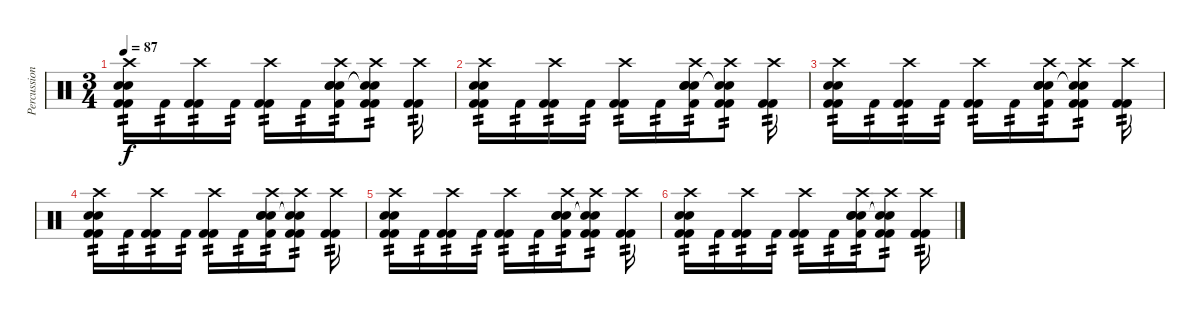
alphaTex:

\track ("Percussion" "Percussion") {instrument percussion}
\staff {score}
\articulation defaults
\ts (3 4)
\tempo 87
\clef neutral
\ks c
("Crash high (hit)" "Snare (hit) 2" "Snare (hit) 2" "Kick (hit) 2" "Kick (hit) 2").16{tp 2 dy f volume 0} "Kick (hit) 2".16{tp 2} ("Crash high (hit)" "Kick (hit) 2" "Kick (hit) 2").16{tp 2} "Kick (hit) 2".16{tp 2} ("Crash high (hit)" "Kick (hit) 2" "Kick (hit) 2").16{tp 2} "Kick (hit) 2".16{tp 2} ("Crash high (hit)" "Snare (hit) 2" "Snare (hit) 2" "Snare (hit) 2" "Kick (hit) 2").16{tp 2} ("Crash high (hit)" "Snare (hit) 2"{t} "Snare (hit) 2"{t} "Kick (hit) 2" "Kick (hit) 2").8{tp 2} ("Crash high (hit)" "Kick (hit) 2" "Kick (hit) 2").16{tp 2} |
("Crash high (hit)" "Snare (hit) 2" "Snare (hit) 2" "Kick (hit) 2" "Kick (hit) 2").16{tp 2 volume 0} "Kick (hit) 2".16{tp 2} ("Crash high (hit)" "Kick (hit) 2" "Kick (hit) 2").16{tp 2} "Kick (hit) 2".16{tp 2} ("Crash high (hit)" "Kick (hit) 2" "Kick (hit) 2").16{tp 2} "Kick (hit) 2".16{tp 2} ("Crash high (hit)" "Snare (hit) 2" "Snare (hit) 2" "Snare (hit) 2" "Kick (hit) 2").16{tp 2} ("Crash high (hit)" "Snare (hit) 2"{t} "Snare (hit) 2"{t} "Kick (hit) 2" "Kick (hit) 2").8{tp 2} ("Crash high (hit)" "Kick (hit) 2" "Kick (hit) 2").16{tp 2} |
("Crash high (hit)" "Snare (hit) 2" "Snare (hit) 2" "Kick (hit) 2" "Kick (hit) 2").16{tp 2 volume 0} "Kick (hit) 2".16{tp 2} ("Crash high (hit)" "Kick (hit) 2" "Kick (hit) 2").16{tp 2} "Kick (hit) 2".16{tp 2} ("Crash high (hit)" "Kick (hit) 2" "Kick (hit) 2").16{tp 2} "Kick (hit) 2".16{tp 2} ("Crash high (hit)" "Snare (hit) 2" "Snare (hit) 2" "Snare (hit) 2" "Kick (hit) 2").16{tp 2} ("Crash high (hit)" "Snare (hit) 2"{t} "Snare (hit) 2"{t} "Kick (hit) 2" "Kick (hit) 2").8{tp 2} ("Crash high (hit)" "Kick (hit) 2" "Kick (hit) 2").16{tp 2} |
("Crash high (hit)" "Snare (hit) 2" "Snare (hit) 2" "Kick (hit) 2" "Kick (hit) 2").16{tp 2 volume 0} "Kick (hit) 2".16{tp 2} ("Crash high (hit)" "Kick (hit) 2" "Kick (hit) 2").16{tp 2} "Kick (hit) 2".16{tp 2} ("Crash high (hit)" "Kick (hit) 2" "Kick (hit) 2").16{tp 2} "Kick (hit) 2".16{tp 2} ("Crash high (hit)" "Snare (hit) 2" "Snare (hit) 2" "Snare (hit) 2" "Kick (hit) 2").16{tp 2} ("Crash high (hit)" "Snare (hit) 2"{t} "Snare (hit) 2"{t} "Kick (hit) 2" "Kick (hit) 2").8{tp 2} ("Crash high (hit)" "Kick (hit) 2" "Kick (hit) 2").16{tp 2} |
("Crash high (hit)" "Snare (hit) 2" "Snare (hit) 2" "Kick (hit) 2" "Kick (hit) 2").16{tp 2 volume 0} "Kick (hit) 2".16{tp 2} ("Crash high (hit)" "Kick (hit) 2" "Kick (hit) 2").16{tp 2} "Kick (hit) 2".16{tp 2} ("Crash high (hit)" "Kick (hit) 2" "Kick (hit) 2").16{tp 2} "Kick (hit) 2".16{tp 2} ("Crash high (hit)" "Snare (hit) 2" "Snare (hit) 2" "Snare (hit) 2" "Kick (hit) 2").16{tp 2} ("Crash high (hit)" "Snare (hit) 2"{t} "Snare (hit) 2"{t} "Kick (hit) 2" "Kick (hit) 2").8{tp 2} ("Crash high (hit)" "Kick (hit) 2" "Kick (hit) 2").16{tp 2} |
("Crash high (hit)" "Snare (hit) 2" "Snare (hit) 2" "Kick (hit) 2" "Kick (hit) 2").16{tp 2 volume 0} "Kick (hit) 2".16{tp 2} ("Crash high (hit)" "Kick (hit) 2" "Kick (hit) 2").16{tp 2} "Kick (hit) 2".16{tp 2} ("Crash high (hit)" "Kick (hit) 2" "Kick (hit) 2").16{tp 2} "Kick (hit) 2".16{tp 2} ("Crash high (hit)" "Snare (hit) 2" "Snare (hit) 2" "Snare (hit) 2" "Kick (hit) 2").16{tp 2} ("Crash high (hit)" "Snare (hit) 2"{t} "Snare (hit) 2"{t} "Kick (hit) 2" "Kick (hit) 2").8{tp 2} ("Crash high (hit)" "Kick (hit) 2" "Kick (hit) 2").16{tp 2}
